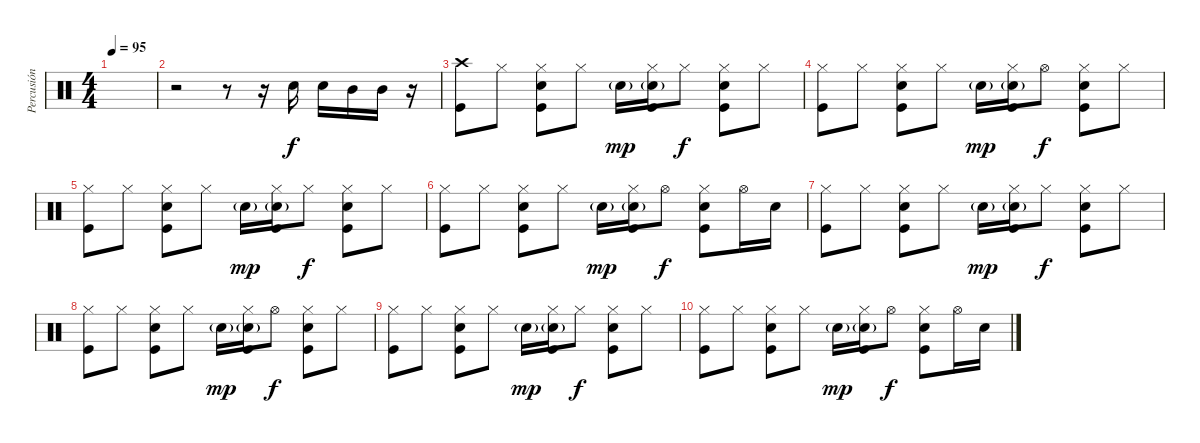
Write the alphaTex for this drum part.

\track ("Percusión" "Percusión") {instrument percussion}
\staff {score}
\articulation defaults
\ts (4 4)
\tempo 95
\clef neutral
\ks c
|
r.2 r.8 r.16 "Snare (hit) 2".16 "Snare (hit) 2".16 "Mid Tom (hit)".16 "Mid Tom (hit)".16 r.16 |
("Crash high (hit)" "Kick (hit)").8 "Hi-Hat (closed)".8 ("Hi-Hat (closed)" "Snare (hit) 2" "Kick (hit)").8 "Hi-Hat (closed)".8 "Snare (hit) 2"{g}.16{dy mp} ("Hi-Hat (closed)" "Snare (hit) 2"{g} "Kick (hit)").16 "Hi-Hat (closed)".8{dy f} ("Hi-Hat (closed)" "Snare (hit) 2" "Kick (hit)").8 "Hi-Hat (closed)".8 |
("Hi-Hat (closed)" "Kick (hit)").8 "Hi-Hat (closed)".8 ("Hi-Hat (closed)" "Snare (hit) 2" "Kick (hit)").8 "Hi-Hat (closed)".8 "Snare (hit) 2"{g}.16{dy mp} ("Hi-Hat (closed)" "Snare (hit) 2"{g} "Kick (hit)").16 "Hi-Hat (open)".8{dy f} ("Hi-Hat (closed)" "Snare (hit) 2" "Kick (hit)").8 "Hi-Hat (closed)".8 |
("Hi-Hat (closed)" "Kick (hit)").8 "Hi-Hat (closed)".8 ("Hi-Hat (closed)" "Snare (hit) 2" "Kick (hit)").8 "Hi-Hat (closed)".8 "Snare (hit) 2"{g}.16{dy mp} ("Hi-Hat (closed)" "Snare (hit) 2"{g} "Kick (hit)").16 "Hi-Hat (closed)".8{dy f} ("Hi-Hat (closed)" "Snare (hit) 2" "Kick (hit)").8 "Hi-Hat (closed)".8 |
("Hi-Hat (closed)" "Kick (hit)").8 "Hi-Hat (closed)".8 ("Hi-Hat (closed)" "Snare (hit) 2" "Kick (hit)").8 "Hi-Hat (closed)".8 "Snare (hit) 2"{g}.16{dy mp} ("Hi-Hat (closed)" "Snare (hit) 2"{g} "Kick (hit)").16 "Hi-Hat (open)".8{dy f} ("Hi-Hat (closed)" "Snare (hit) 2" "Kick (hit)").8 "Hi-Hat (open)".16 "Snare (hit) 2".16 |
("Hi-Hat (closed)" "Kick (hit)").8 "Hi-Hat (closed)".8 ("Hi-Hat (closed)" "Snare (hit) 2" "Kick (hit)").8 "Hi-Hat (closed)".8 "Snare (hit) 2"{g}.16{dy mp} ("Hi-Hat (closed)" "Snare (hit) 2"{g} "Kick (hit)").16 "Hi-Hat (closed)".8{dy f} ("Hi-Hat (closed)" "Snare (hit) 2" "Kick (hit)").8 "Hi-Hat (closed)".8 |
("Hi-Hat (closed)" "Kick (hit)").8 "Hi-Hat (closed)".8 ("Hi-Hat (closed)" "Snare (hit) 2" "Kick (hit)").8 "Hi-Hat (closed)".8 "Snare (hit) 2"{g}.16{dy mp} ("Hi-Hat (closed)" "Snare (hit) 2"{g} "Kick (hit)").16 "Hi-Hat (open)".8{dy f} ("Hi-Hat (closed)" "Snare (hit) 2" "Kick (hit)").8 "Hi-Hat (closed)".8 |
("Hi-Hat (closed)" "Kick (hit)").8 "Hi-Hat (closed)".8 ("Hi-Hat (closed)" "Snare (hit) 2" "Kick (hit)").8 "Hi-Hat (closed)".8 "Snare (hit) 2"{g}.16{dy mp} ("Hi-Hat (closed)" "Snare (hit) 2"{g} "Kick (hit)").16 "Hi-Hat (closed)".8{dy f} ("Hi-Hat (closed)" "Snare (hit) 2" "Kick (hit)").8 "Hi-Hat (closed)".8 |
("Hi-Hat (closed)" "Kick (hit)").8 "Hi-Hat (closed)".8 ("Hi-Hat (closed)" "Snare (hit) 2" "Kick (hit)").8 "Hi-Hat (closed)".8 "Snare (hit) 2"{g}.16{dy mp} ("Hi-Hat (closed)" "Snare (hit) 2"{g} "Kick (hit)").16 "Hi-Hat (open)".8{dy f} ("Hi-Hat (closed)" "Snare (hit) 2" "Kick (hit)").8 "Hi-Hat (open)".16 "Snare (hit) 2".16
